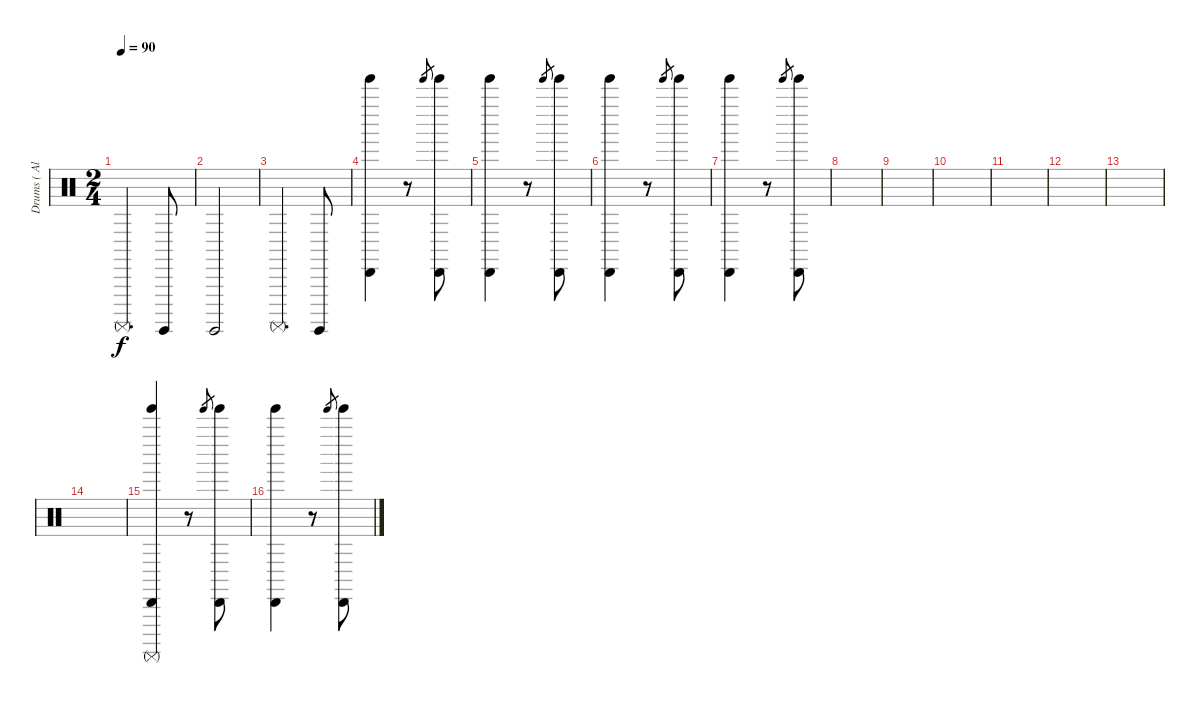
\track ("Drums ( Alex Holzwarth)" "Drums ( Al") {instrument percussion}
\staff {score}
\articulation defaults
\ts (2 4)
\tempo 90
\clef neutral
\ks c "Surdo (mute)".4{d dy f} "Surdo (hit)".8
|
"Surdo (hit)".2 |
"Surdo (mute)".4{d} "Surdo (hit)".8 |
("Cabasa (hit)" "Tinkle Bell (hit)").4 r.8 "Tinkle Bell (hit)".8{gr} ("Cabasa (hit)" "Tinkle Bell (hit)").8 |
("Cabasa (hit)" "Tinkle Bell (hit)").4 r.8 "Tinkle Bell (hit)".8{gr} ("Cabasa (hit)" "Tinkle Bell (hit)").8 |
("Cabasa (hit)" "Tinkle Bell (hit)").4 r.8 "Tinkle Bell (hit)".8{gr} ("Cabasa (hit)" "Tinkle Bell (hit)").8 |
("Cabasa (hit)" "Tinkle Bell (hit)").4 r.8 "Tinkle Bell (hit)".8{gr} ("Cabasa (hit)" "Tinkle Bell (hit)").8 |
|
|
|
|
|
|
|
("Cabasa (hit)" "Surdo (mute)" "Tinkle Bell (hit)").4 r.8 "Tinkle Bell (hit)".8{gr} ("Cabasa (hit)" "Tinkle Bell (hit)").8 |
("Cabasa (hit)" "Tinkle Bell (hit)").4 r.8 "Tinkle Bell (hit)".8{gr} ("Cabasa (hit)" "Tinkle Bell (hit)").8
